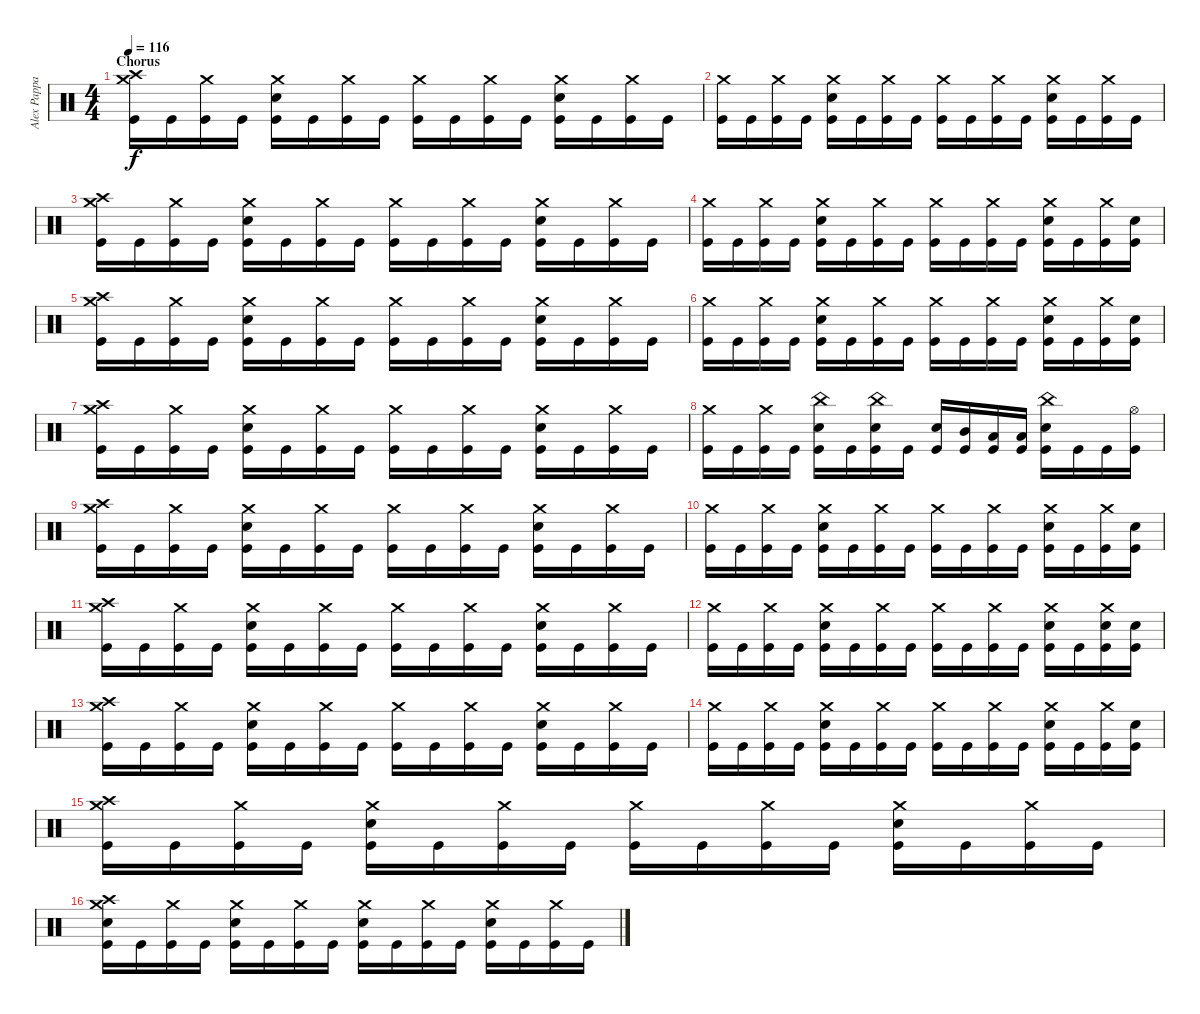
\track ("Alex Pappas" "Alex Pappa") {instrument percussion}
\staff {score}
\articulation defaults
\ts (4 4)
\section ("" "Chorus")
\tempo 116
\clef neutral
\ks c
("Crash high (hit)" "Crash medium (hit)" "Kick (hit)").16{dy f} "Kick (hit)".16 ("Crash medium (hit)" "Kick (hit)").16 "Kick (hit)".16 ("Crash medium (hit)" "Electric Snare (hit)" "Kick (hit)").16 "Kick (hit)".16 ("Crash medium (hit)" "Kick (hit)").16 "Kick (hit)".16 ("Crash medium (hit)" "Kick (hit)").16 "Kick (hit)".16 ("Crash medium (hit)" "Kick (hit)").16 "Kick (hit)".16 ("Crash medium (hit)" "Electric Snare (hit)" "Kick (hit)").16 "Kick (hit)".16 ("Crash medium (hit)" "Kick (hit)").16 "Kick (hit)".16 |
("Crash medium (hit)" "Kick (hit)").16 "Kick (hit)".16 ("Crash medium (hit)" "Kick (hit)").16 "Kick (hit)".16 ("Crash medium (hit)" "Electric Snare (hit)" "Kick (hit)").16 "Kick (hit)".16 ("Crash medium (hit)" "Kick (hit)").16 "Kick (hit)".16 ("Crash medium (hit)" "Kick (hit)").16 "Kick (hit)".16 ("Crash medium (hit)" "Kick (hit)").16 "Kick (hit)".16 ("Crash medium (hit)" "Electric Snare (hit)" "Kick (hit)").16 "Kick (hit)".16 ("Crash medium (hit)" "Kick (hit)").16 "Kick (hit)".16 |
("Crash medium (hit)" "Crash high (hit)" "Kick (hit)").16 "Kick (hit)".16 ("Crash medium (hit)" "Kick (hit)").16 "Kick (hit)".16 ("Crash medium (hit)" "Electric Snare (hit)" "Kick (hit)").16 "Kick (hit)".16 ("Crash medium (hit)" "Kick (hit)").16 "Kick (hit)".16 ("Crash medium (hit)" "Kick (hit)").16 "Kick (hit)".16 ("Crash medium (hit)" "Kick (hit)").16 "Kick (hit)".16 ("Crash medium (hit)" "Electric Snare (hit)" "Kick (hit)").16 "Kick (hit)".16 ("Crash medium (hit)" "Kick (hit)").16 "Kick (hit)".16 |
("Crash medium (hit)" "Kick (hit)").16 "Kick (hit)".16 ("Crash medium (hit)" "Kick (hit)").16 "Kick (hit)".16 ("Crash medium (hit)" "Electric Snare (hit)" "Kick (hit)").16 "Kick (hit)".16 ("Crash medium (hit)" "Kick (hit)").16 "Kick (hit)".16 ("Crash medium (hit)" "Kick (hit)").16 "Kick (hit)".16 ("Crash medium (hit)" "Kick (hit)").16 "Kick (hit)".16 ("Crash medium (hit)" "Electric Snare (hit)" "Kick (hit)").16 "Kick (hit)".16 ("Crash medium (hit)" "Kick (hit)").16 ("Electric Snare (hit)" "Kick (hit)").16 |
("Crash medium (hit)" "Crash high (hit)" "Kick (hit)").16 "Kick (hit)".16 ("Crash medium (hit)" "Kick (hit)").16 "Kick (hit)".16 ("Crash medium (hit)" "Electric Snare (hit)" "Kick (hit)").16 "Kick (hit)".16 ("Crash medium (hit)" "Kick (hit)").16 "Kick (hit)".16 ("Crash medium (hit)" "Kick (hit)").16 "Kick (hit)".16 ("Crash medium (hit)" "Kick (hit)").16 "Kick (hit)".16 ("Crash medium (hit)" "Electric Snare (hit)" "Kick (hit)").16 "Kick (hit)".16 ("Crash medium (hit)" "Kick (hit)").16 "Kick (hit)".16 |
("Crash medium (hit)" "Kick (hit)").16 "Kick (hit)".16 ("Crash medium (hit)" "Kick (hit)").16 "Kick (hit)".16 ("Crash medium (hit)" "Electric Snare (hit)" "Kick (hit)").16 "Kick (hit)".16 ("Crash medium (hit)" "Kick (hit)").16 "Kick (hit)".16 ("Crash medium (hit)" "Kick (hit)").16 "Kick (hit)".16 ("Crash medium (hit)" "Kick (hit)").16 "Kick (hit)".16 ("Crash medium (hit)" "Electric Snare (hit)" "Kick (hit)").16 "Kick (hit)".16 ("Crash medium (hit)" "Kick (hit)").16 ("Electric Snare (hit)" "Kick (hit)").16 |
("Crash medium (hit)" "Crash high (hit)" "Kick (hit)").16 "Kick (hit)".16 ("Crash medium (hit)" "Kick (hit)").16 "Kick (hit)".16 ("Crash medium (hit)" "Electric Snare (hit)" "Kick (hit)").16 "Kick (hit)".16 ("Crash medium (hit)" "Kick (hit)").16 "Kick (hit)".16 ("Crash medium (hit)" "Kick (hit)").16 "Kick (hit)".16 ("Crash medium (hit)" "Kick (hit)").16 "Kick (hit)".16 ("Crash medium (hit)" "Electric Snare (hit)" "Kick (hit)").16 "Kick (hit)".16 ("Crash medium (hit)" "Kick (hit)").16 "Kick (hit)".16 |
("Crash medium (hit)" "Kick (hit)").16 "Kick (hit)".16 ("Crash medium (hit)" "Kick (hit)").16 "Kick (hit)".16 ("China (hit)" "Electric Snare (hit)" "Kick (hit)").16 "Kick (hit)".16 ("China (hit)" "Electric Snare (hit)" "Kick (hit)").16 "Kick (hit)".16 ("Electric Snare (hit)" "Kick (hit)").16 ("Mid Tom (hit)" "Kick (hit)").16 ("Low Tom (hit)" "Kick (hit)").16 ("Low Tom (hit)" "Kick (hit)").16 ("China (hit)" "Electric Snare (hit)" "Kick (hit)").16 "Kick (hit)".16 "Kick (hit)".16 ("Hi-Hat (open)" "Kick (hit)").16 |
("Crash high (hit)" "Crash medium (hit)" "Kick (hit)").16 "Kick (hit)".16 ("Crash medium (hit)" "Kick (hit)").16 "Kick (hit)".16 ("Crash medium (hit)" "Electric Snare (hit)" "Kick (hit)").16 "Kick (hit)".16 ("Crash medium (hit)" "Kick (hit)").16 "Kick (hit)".16 ("Crash medium (hit)" "Kick (hit)").16 "Kick (hit)".16 ("Crash medium (hit)" "Kick (hit)").16 "Kick (hit)".16 ("Crash medium (hit)" "Electric Snare (hit)" "Kick (hit)").16 "Kick (hit)".16 ("Crash medium (hit)" "Kick (hit)").16 "Kick (hit)".16 |
("Crash medium (hit)" "Kick (hit)").16 "Kick (hit)".16 ("Crash medium (hit)" "Kick (hit)").16 "Kick (hit)".16 ("Crash medium (hit)" "Electric Snare (hit)" "Kick (hit)").16 "Kick (hit)".16 ("Crash medium (hit)" "Kick (hit)").16 "Kick (hit)".16 ("Crash medium (hit)" "Kick (hit)").16 "Kick (hit)".16 ("Crash medium (hit)" "Kick (hit)").16 "Kick (hit)".16 ("Crash medium (hit)" "Electric Snare (hit)" "Kick (hit)").16 "Kick (hit)".16 ("Crash medium (hit)" "Kick (hit)").16 ("Electric Snare (hit)" "Kick (hit)").16 |
("Crash high (hit)" "Crash medium (hit)" "Kick (hit)").16 "Kick (hit)".16 ("Crash medium (hit)" "Kick (hit)").16 "Kick (hit)".16 ("Crash medium (hit)" "Electric Snare (hit)" "Kick (hit)").16 "Kick (hit)".16 ("Crash medium (hit)" "Kick (hit)").16 "Kick (hit)".16 ("Crash medium (hit)" "Kick (hit)").16 "Kick (hit)".16 ("Crash medium (hit)" "Kick (hit)").16 "Kick (hit)".16 ("Crash medium (hit)" "Electric Snare (hit)" "Kick (hit)").16 "Kick (hit)".16 ("Crash medium (hit)" "Kick (hit)").16 "Kick (hit)".16 |
("Crash medium (hit)" "Kick (hit)").16 "Kick (hit)".16 ("Crash medium (hit)" "Kick (hit)").16 "Kick (hit)".16 ("Crash medium (hit)" "Electric Snare (hit)" "Kick (hit)").16 "Kick (hit)".16 ("Crash medium (hit)" "Kick (hit)").16 "Kick (hit)".16 ("Crash medium (hit)" "Kick (hit)").16 "Kick (hit)".16 ("Crash medium (hit)" "Kick (hit)").16 "Kick (hit)".16 ("Crash medium (hit)" "Electric Snare (hit)" "Kick (hit)").16 "Kick (hit)".16 ("Crash medium (hit)" "Electric Snare (hit)" "Kick (hit)").16 ("Electric Snare (hit)" "Kick (hit)").16 |
("Crash high (hit)" "Crash medium (hit)" "Kick (hit)").16 "Kick (hit)".16 ("Crash medium (hit)" "Kick (hit)").16 "Kick (hit)".16 ("Crash medium (hit)" "Electric Snare (hit)" "Kick (hit)").16 "Kick (hit)".16 ("Crash medium (hit)" "Kick (hit)").16 "Kick (hit)".16 ("Crash medium (hit)" "Kick (hit)").16 "Kick (hit)".16 ("Crash medium (hit)" "Kick (hit)").16 "Kick (hit)".16 ("Crash medium (hit)" "Electric Snare (hit)" "Kick (hit)").16 "Kick (hit)".16 ("Crash medium (hit)" "Kick (hit)").16 "Kick (hit)".16 |
("Crash medium (hit)" "Kick (hit)").16 "Kick (hit)".16 ("Crash medium (hit)" "Kick (hit)").16 "Kick (hit)".16 ("Crash medium (hit)" "Electric Snare (hit)" "Kick (hit)").16 "Kick (hit)".16 ("Crash medium (hit)" "Kick (hit)").16 "Kick (hit)".16 ("Crash medium (hit)" "Kick (hit)").16 "Kick (hit)".16 ("Crash medium (hit)" "Kick (hit)").16 "Kick (hit)".16 ("Crash medium (hit)" "Electric Snare (hit)" "Kick (hit)").16 "Kick (hit)".16 ("Crash medium (hit)" "Kick (hit)").16 ("Electric Snare (hit)" "Kick (hit)").16 |
("Crash high (hit)" "Crash medium (hit)" "Kick (hit)").16 "Kick (hit)".16 ("Crash medium (hit)" "Kick (hit)").16 "Kick (hit)".16 ("Crash medium (hit)" "Electric Snare (hit)" "Kick (hit)").16 "Kick (hit)".16 ("Crash medium (hit)" "Kick (hit)").16 "Kick (hit)".16 ("Crash medium (hit)" "Kick (hit)").16 "Kick (hit)".16 ("Crash medium (hit)" "Kick (hit)").16 "Kick (hit)".16 ("Crash medium (hit)" "Electric Snare (hit)" "Kick (hit)").16 "Kick (hit)".16 ("Crash medium (hit)" "Kick (hit)").16 "Kick (hit)".16 |
("Crash high (hit)" "Crash medium (hit)" "Electric Snare (hit)" "Kick (hit)").16 "Kick (hit)".16 ("Crash medium (hit)" "Kick (hit)").16 "Kick (hit)".16 ("Crash medium (hit)" "Electric Snare (hit)" "Kick (hit)").16 "Kick (hit)".16 ("Crash medium (hit)" "Kick (hit)").16 "Kick (hit)".16 ("Crash medium (hit)" "Electric Snare (hit)" "Kick (hit)").16 "Kick (hit)".16 ("Crash medium (hit)" "Kick (hit)").16 "Kick (hit)".16 ("Crash medium (hit)" "Electric Snare (hit)" "Kick (hit)").16 "Kick (hit)".16 ("Crash medium (hit)" "Kick (hit)").16 "Kick (hit)".16
